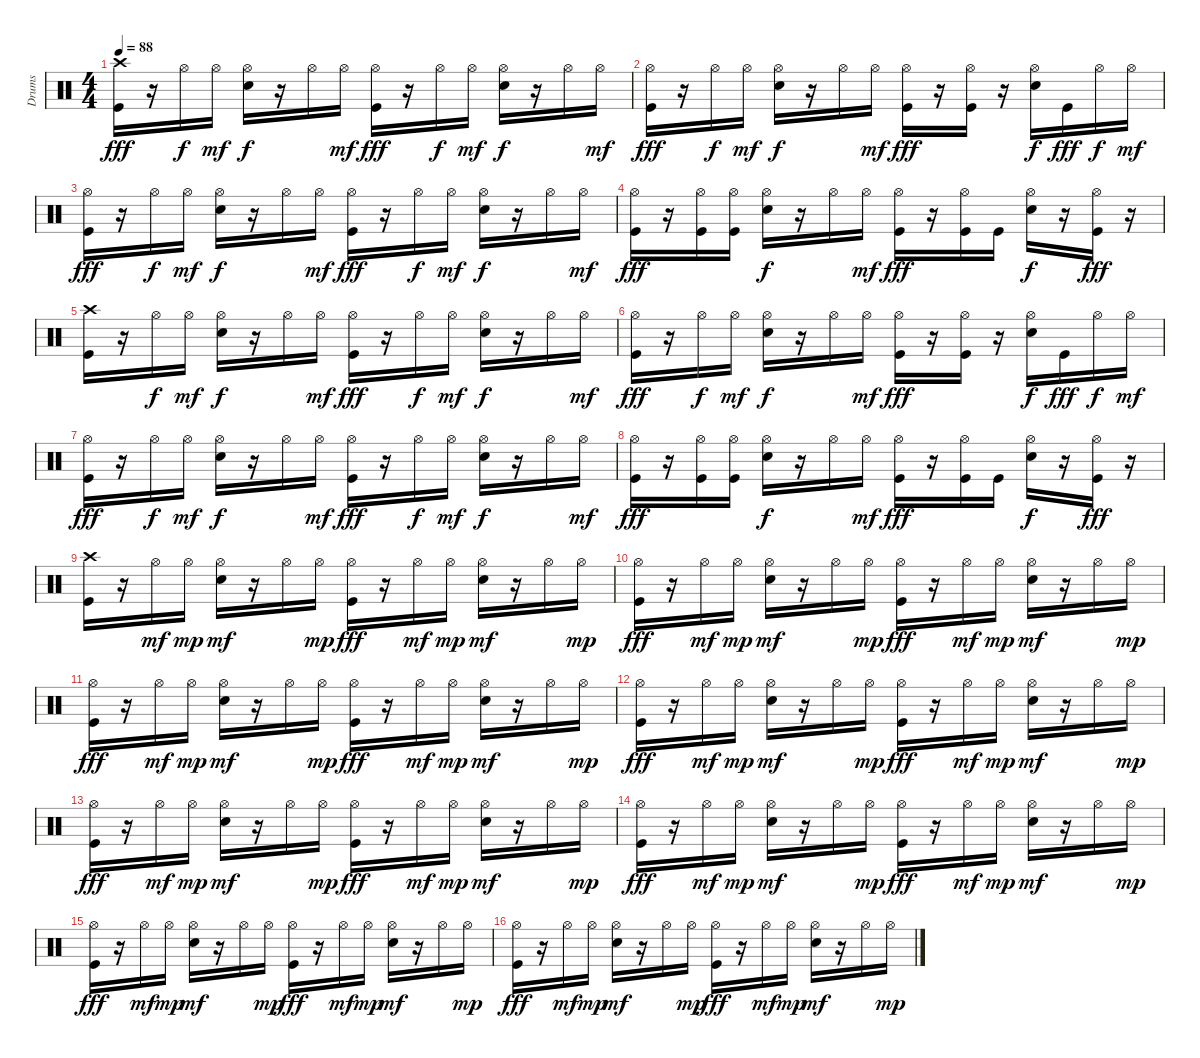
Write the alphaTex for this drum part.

\track ("Drums" "Drums") {instrument percussion}
\staff {score}
\articulation defaults
\ts (4 4)
\tempo 88
\clef neutral
\ks c
("Crash high (hit)" "Kick (hit)").16{dy fff} r.16 "Hi-Hat (open)".16{dy f} "Hi-Hat (open)".16{dy mf} ("Hi-Hat (open)" "Snare (hit) 2").16{dy f} r.16 "Hi-Hat (open)".16 "Hi-Hat (open)".16{dy mf} ("Hi-Hat (open)" "Kick (hit)").16{dy fff} r.16 "Hi-Hat (open)".16{dy f} "Hi-Hat (open)".16{dy mf} ("Hi-Hat (open)" "Snare (hit) 2").16{dy f} r.16 "Hi-Hat (open)".16 "Hi-Hat (open)".16{dy mf} |
("Hi-Hat (open)" "Kick (hit)").16{dy fff} r.16 "Hi-Hat (open)".16{dy f} "Hi-Hat (open)".16{dy mf} ("Hi-Hat (open)" "Snare (hit) 2").16{dy f} r.16 "Hi-Hat (open)".16 "Hi-Hat (open)".16{dy mf} ("Hi-Hat (open)" "Kick (hit)").16{dy fff} r.16 ("Hi-Hat (open)" "Kick (hit)").16 r.16 ("Hi-Hat (open)" "Snare (hit) 2").16{dy f} "Kick (hit)".16{dy fff} "Hi-Hat (open)".16{dy f} "Hi-Hat (open)".16{dy mf} |
("Hi-Hat (open)" "Kick (hit)").16{dy fff} r.16 "Hi-Hat (open)".16{dy f} "Hi-Hat (open)".16{dy mf} ("Hi-Hat (open)" "Snare (hit) 2").16{dy f} r.16 "Hi-Hat (open)".16 "Hi-Hat (open)".16{dy mf} ("Hi-Hat (open)" "Kick (hit)").16{dy fff} r.16 "Hi-Hat (open)".16{dy f} "Hi-Hat (open)".16{dy mf} ("Hi-Hat (open)" "Snare (hit) 2").16{dy f} r.16 "Hi-Hat (open)".16 "Hi-Hat (open)".16{dy mf} |
("Hi-Hat (open)" "Kick (hit)").16{dy fff} r.16 ("Hi-Hat (open)" "Kick (hit)").16 ("Hi-Hat (open)" "Kick (hit)").16 ("Hi-Hat (open)" "Snare (hit) 2").16{dy f} r.16 "Hi-Hat (open)".16 "Hi-Hat (open)".16{dy mf} ("Hi-Hat (open)" "Kick (hit)").16{dy fff} r.16 ("Hi-Hat (open)" "Kick (hit)").16 "Kick (hit)".16 ("Hi-Hat (open)" "Snare (hit) 2").16{dy f} r.16 ("Hi-Hat (open)" "Kick (hit)").16{dy fff} r.16 |
("Crash high (hit)" "Kick (hit)").16 r.16 "Hi-Hat (open)".16{dy f} "Hi-Hat (open)".16{dy mf} ("Hi-Hat (open)" "Snare (hit) 2").16{dy f} r.16 "Hi-Hat (open)".16 "Hi-Hat (open)".16{dy mf} ("Hi-Hat (open)" "Kick (hit)").16{dy fff} r.16 "Hi-Hat (open)".16{dy f} "Hi-Hat (open)".16{dy mf} ("Hi-Hat (open)" "Snare (hit) 2").16{dy f} r.16 "Hi-Hat (open)".16 "Hi-Hat (open)".16{dy mf} |
("Hi-Hat (open)" "Kick (hit)").16{dy fff} r.16 "Hi-Hat (open)".16{dy f} "Hi-Hat (open)".16{dy mf} ("Hi-Hat (open)" "Snare (hit) 2").16{dy f} r.16 "Hi-Hat (open)".16 "Hi-Hat (open)".16{dy mf} ("Hi-Hat (open)" "Kick (hit)").16{dy fff} r.16 ("Hi-Hat (open)" "Kick (hit)").16 r.16 ("Hi-Hat (open)" "Snare (hit) 2").16{dy f} "Kick (hit)".16{dy fff} "Hi-Hat (open)".16{dy f} "Hi-Hat (open)".16{dy mf} |
("Hi-Hat (open)" "Kick (hit)").16{dy fff} r.16 "Hi-Hat (open)".16{dy f} "Hi-Hat (open)".16{dy mf} ("Hi-Hat (open)" "Snare (hit) 2").16{dy f} r.16 "Hi-Hat (open)".16 "Hi-Hat (open)".16{dy mf} ("Hi-Hat (open)" "Kick (hit)").16{dy fff} r.16 "Hi-Hat (open)".16{dy f} "Hi-Hat (open)".16{dy mf} ("Hi-Hat (open)" "Snare (hit) 2").16{dy f} r.16 "Hi-Hat (open)".16 "Hi-Hat (open)".16{dy mf} |
("Hi-Hat (open)" "Kick (hit)").16{dy fff} r.16 ("Hi-Hat (open)" "Kick (hit)").16 ("Hi-Hat (open)" "Kick (hit)").16 ("Hi-Hat (open)" "Snare (hit) 2").16{dy f} r.16 "Hi-Hat (open)".16 "Hi-Hat (open)".16{dy mf} ("Hi-Hat (open)" "Kick (hit)").16{dy fff} r.16 ("Hi-Hat (open)" "Kick (hit)").16 "Kick (hit)".16 ("Hi-Hat (open)" "Snare (hit) 2").16{dy f} r.16 ("Hi-Hat (open)" "Kick (hit)").16{dy fff} r.16 |
("Crash high (hit)" "Kick (hit)").16 r.16 "Hi-Hat (open)".16{dy mf} "Hi-Hat (open)".16{dy mp} ("Hi-Hat (open)" "Snare (hit) 2").16{dy mf} r.16 "Hi-Hat (open)".16 "Hi-Hat (open)".16{dy mp} ("Hi-Hat (open)" "Kick (hit)").16{dy fff} r.16 "Hi-Hat (open)".16{dy mf} "Hi-Hat (open)".16{dy mp} ("Hi-Hat (open)" "Snare (hit) 2").16{dy mf} r.16 "Hi-Hat (open)".16 "Hi-Hat (open)".16{dy mp} |
("Hi-Hat (open)" "Kick (hit)").16{dy fff} r.16 "Hi-Hat (open)".16{dy mf} "Hi-Hat (open)".16{dy mp} ("Hi-Hat (open)" "Snare (hit) 2").16{dy mf} r.16 "Hi-Hat (open)".16 "Hi-Hat (open)".16{dy mp} ("Hi-Hat (open)" "Kick (hit)").16{dy fff} r.16 "Hi-Hat (open)".16{dy mf} "Hi-Hat (open)".16{dy mp} ("Hi-Hat (open)" "Snare (hit) 2").16{dy mf} r.16 "Hi-Hat (open)".16 "Hi-Hat (open)".16{dy mp} |
("Hi-Hat (open)" "Kick (hit)").16{dy fff} r.16 "Hi-Hat (open)".16{dy mf} "Hi-Hat (open)".16{dy mp} ("Hi-Hat (open)" "Snare (hit) 2").16{dy mf} r.16 "Hi-Hat (open)".16 "Hi-Hat (open)".16{dy mp} ("Hi-Hat (open)" "Kick (hit)").16{dy fff} r.16 "Hi-Hat (open)".16{dy mf} "Hi-Hat (open)".16{dy mp} ("Hi-Hat (open)" "Snare (hit) 2").16{dy mf} r.16 "Hi-Hat (open)".16 "Hi-Hat (open)".16{dy mp} |
("Hi-Hat (open)" "Kick (hit)").16{dy fff} r.16 "Hi-Hat (open)".16{dy mf} "Hi-Hat (open)".16{dy mp} ("Hi-Hat (open)" "Snare (hit) 2").16{dy mf} r.16 "Hi-Hat (open)".16 "Hi-Hat (open)".16{dy mp} ("Hi-Hat (open)" "Kick (hit)").16{dy fff} r.16 "Hi-Hat (open)".16{dy mf} "Hi-Hat (open)".16{dy mp} ("Hi-Hat (open)" "Snare (hit) 2").16{dy mf} r.16 "Hi-Hat (open)".16 "Hi-Hat (open)".16{dy mp} |
("Hi-Hat (open)" "Kick (hit)").16{dy fff} r.16 "Hi-Hat (open)".16{dy mf} "Hi-Hat (open)".16{dy mp} ("Hi-Hat (open)" "Snare (hit) 2").16{dy mf} r.16 "Hi-Hat (open)".16 "Hi-Hat (open)".16{dy mp} ("Hi-Hat (open)" "Kick (hit)").16{dy fff} r.16 "Hi-Hat (open)".16{dy mf} "Hi-Hat (open)".16{dy mp} ("Hi-Hat (open)" "Snare (hit) 2").16{dy mf} r.16 "Hi-Hat (open)".16 "Hi-Hat (open)".16{dy mp} |
("Hi-Hat (open)" "Kick (hit)").16{dy fff} r.16 "Hi-Hat (open)".16{dy mf} "Hi-Hat (open)".16{dy mp} ("Hi-Hat (open)" "Snare (hit) 2").16{dy mf} r.16 "Hi-Hat (open)".16 "Hi-Hat (open)".16{dy mp} ("Hi-Hat (open)" "Kick (hit)").16{dy fff} r.16 "Hi-Hat (open)".16{dy mf} "Hi-Hat (open)".16{dy mp} ("Hi-Hat (open)" "Snare (hit) 2").16{dy mf} r.16 "Hi-Hat (open)".16 "Hi-Hat (open)".16{dy mp} |
("Hi-Hat (open)" "Kick (hit)").16{dy fff} r.16 "Hi-Hat (open)".16{dy mf} "Hi-Hat (open)".16{dy mp} ("Hi-Hat (open)" "Snare (hit) 2").16{dy mf} r.16 "Hi-Hat (open)".16 "Hi-Hat (open)".16{dy mp} ("Hi-Hat (open)" "Kick (hit)").16{dy fff} r.16 "Hi-Hat (open)".16{dy mf} "Hi-Hat (open)".16{dy mp} ("Hi-Hat (open)" "Snare (hit) 2").16{dy mf} r.16 "Hi-Hat (open)".16 "Hi-Hat (open)".16{dy mp} |
("Hi-Hat (open)" "Kick (hit)").16{dy fff} r.16 "Hi-Hat (open)".16{dy mf} "Hi-Hat (open)".16{dy mp} ("Hi-Hat (open)" "Snare (hit) 2").16{dy mf} r.16 "Hi-Hat (open)".16 "Hi-Hat (open)".16{dy mp} ("Hi-Hat (open)" "Kick (hit)").16{dy fff} r.16 "Hi-Hat (open)".16{dy mf} "Hi-Hat (open)".16{dy mp} ("Hi-Hat (open)" "Snare (hit) 2").16{dy mf} r.16 "Hi-Hat (open)".16 "Hi-Hat (open)".16{dy mp}
